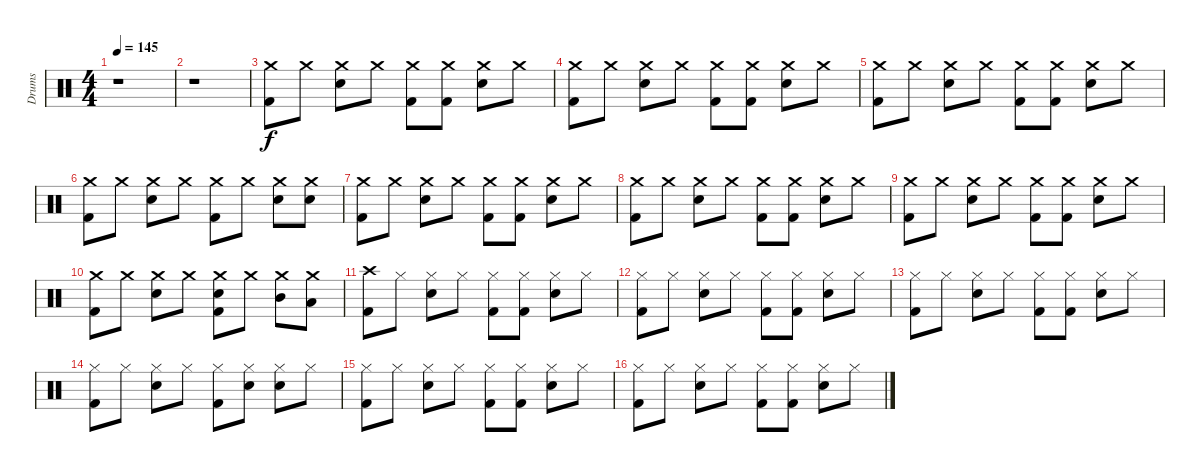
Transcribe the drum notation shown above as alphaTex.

\track ("Drums" "Drums") {instrument percussion}
\staff {score}
\articulation defaults
\ts (4 4)
\tempo 145
\clef neutral
\ks c
r.1{dy f} |
r.1 |
("Crash medium (hit)" "Kick (hit) 2").8 "Crash medium (hit)".8 ("Crash medium (hit)" "Snare (hit) 2").8 "Crash medium (hit)".8 ("Crash medium (hit)" "Kick (hit) 2").8 ("Crash medium (hit)" "Kick (hit) 2").8 ("Crash medium (hit)" "Snare (hit) 2").8 "Crash medium (hit)".8 |
("Crash medium (hit)" "Kick (hit) 2").8 "Crash medium (hit)".8 ("Crash medium (hit)" "Snare (hit) 2").8 "Crash medium (hit)".8 ("Crash medium (hit)" "Kick (hit) 2").8 ("Crash medium (hit)" "Kick (hit) 2").8 ("Crash medium (hit)" "Snare (hit) 2").8 "Crash medium (hit)".8 |
("Crash medium (hit)" "Kick (hit) 2").8 "Crash medium (hit)".8 ("Crash medium (hit)" "Snare (hit) 2").8 "Crash medium (hit)".8 ("Crash medium (hit)" "Kick (hit) 2").8 ("Crash medium (hit)" "Kick (hit) 2").8 ("Crash medium (hit)" "Snare (hit) 2").8 "Crash medium (hit)".8 |
("Crash medium (hit)" "Kick (hit) 2").8 "Crash medium (hit)".8 ("Crash medium (hit)" "Snare (hit) 2").8 "Crash medium (hit)".8 ("Crash medium (hit)" "Kick (hit) 2").8 "Crash medium (hit)".8 ("Crash medium (hit)" "Snare (hit) 2").8 ("Crash medium (hit)" "Snare (hit) 2").8 |
("Crash medium (hit)" "Kick (hit) 2").8 "Crash medium (hit)".8 ("Crash medium (hit)" "Snare (hit) 2").8 "Crash medium (hit)".8 ("Crash medium (hit)" "Kick (hit) 2").8 ("Crash medium (hit)" "Kick (hit) 2").8 ("Crash medium (hit)" "Snare (hit) 2").8 "Crash medium (hit)".8 |
("Crash medium (hit)" "Kick (hit) 2").8 "Crash medium (hit)".8 ("Crash medium (hit)" "Snare (hit) 2").8 "Crash medium (hit)".8 ("Crash medium (hit)" "Kick (hit) 2").8 ("Crash medium (hit)" "Kick (hit) 2").8 ("Crash medium (hit)" "Snare (hit) 2").8 "Crash medium (hit)".8 |
("Crash medium (hit)" "Kick (hit) 2").8 "Crash medium (hit)".8 ("Crash medium (hit)" "Snare (hit) 2").8 "Crash medium (hit)".8 ("Crash medium (hit)" "Kick (hit) 2").8 ("Crash medium (hit)" "Kick (hit) 2").8 ("Crash medium (hit)" "Snare (hit) 2").8 "Crash medium (hit)".8 |
("Crash medium (hit)" "Kick (hit) 2").8 "Crash medium (hit)".8 ("Crash medium (hit)" "Snare (hit) 2").8 "Crash medium (hit)".8 ("Crash medium (hit)" "Snare (hit) 2" "Kick (hit) 2").8 "Crash medium (hit)".8 ("Crash medium (hit)" "Mid Tom (hit)").8 ("Crash medium (hit)" "Low Tom (hit)").8 |
("Crash high (hit)" "Kick (hit) 2").8 "Hi-Hat (closed)".8 ("Hi-Hat (closed)" "Snare (hit) 2").8 "Hi-Hat (closed)".8 ("Hi-Hat (closed)" "Kick (hit) 2").8 ("Hi-Hat (closed)" "Kick (hit) 2").8 ("Hi-Hat (closed)" "Snare (hit) 2").8 "Hi-Hat (closed)".8 |
("Hi-Hat (closed)" "Kick (hit) 2").8 "Hi-Hat (closed)".8 ("Hi-Hat (closed)" "Snare (hit) 2").8 "Hi-Hat (closed)".8 ("Hi-Hat (closed)" "Kick (hit) 2").8 ("Hi-Hat (closed)" "Kick (hit) 2").8 ("Hi-Hat (closed)" "Snare (hit) 2").8 "Hi-Hat (closed)".8 |
("Hi-Hat (closed)" "Kick (hit) 2").8 "Hi-Hat (closed)".8 ("Hi-Hat (closed)" "Snare (hit) 2").8 "Hi-Hat (closed)".8 ("Hi-Hat (closed)" "Kick (hit) 2").8 ("Hi-Hat (closed)" "Kick (hit) 2").8 ("Hi-Hat (closed)" "Snare (hit) 2").8 "Hi-Hat (closed)".8 |
("Hi-Hat (closed)" "Kick (hit) 2").8 "Hi-Hat (closed)".8 ("Hi-Hat (closed)" "Snare (hit) 2").8 "Hi-Hat (closed)".8 ("Hi-Hat (closed)" "Kick (hit) 2").8 ("Hi-Hat (closed)" "Snare (hit) 2").8 ("Hi-Hat (closed)" "Snare (hit) 2").8 "Hi-Hat (closed)".8 |
("Hi-Hat (closed)" "Kick (hit) 2").8 "Hi-Hat (closed)".8 ("Hi-Hat (closed)" "Snare (hit) 2").8 "Hi-Hat (closed)".8 ("Hi-Hat (closed)" "Kick (hit) 2").8 ("Hi-Hat (closed)" "Kick (hit) 2").8 ("Hi-Hat (closed)" "Snare (hit) 2").8 "Hi-Hat (closed)".8 |
("Hi-Hat (closed)" "Kick (hit) 2").8 "Hi-Hat (closed)".8 ("Hi-Hat (closed)" "Snare (hit) 2").8 "Hi-Hat (closed)".8 ("Hi-Hat (closed)" "Kick (hit) 2").8 ("Hi-Hat (closed)" "Kick (hit) 2").8 ("Hi-Hat (closed)" "Snare (hit) 2").8 "Hi-Hat (closed)".8
